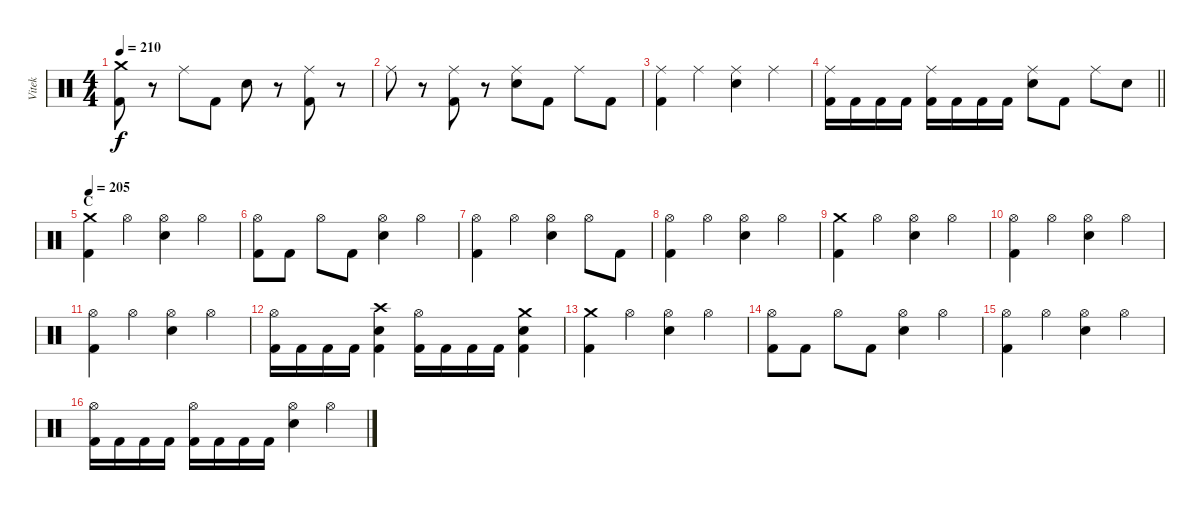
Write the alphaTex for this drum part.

\track ("Vitek" "Vitek") {instrument percussion}
\staff {score}
\articulation defaults
\ts (4 4)
\tempo 210
\clef neutral
\ks c
("Crash medium (hit)" "Kick (hit) 2").8{dy f} r.8 "Ride (middle)".8 "Kick (hit) 2".8 "Electric Snare (hit)".8 r.8 ("Ride (middle)" "Kick (hit) 2").8 r.8 |
"Ride (middle)".8 r.8 ("Ride (middle)" "Kick (hit) 2").8 r.8 ("Ride (middle)" "Electric Snare (hit)").8 "Kick (hit) 2".8 "Ride (middle)".8 "Kick (hit) 2".8 |
("Ride (middle)" "Kick (hit) 2").4 "Ride (middle)".4 ("Ride (middle)" "Electric Snare (hit)").4 "Ride (middle)".4 |
\barLineRight lightlight
("Ride (middle)" "Kick (hit) 2").16 "Kick (hit) 2".16 "Kick (hit) 2".16 "Kick (hit) 2".16 ("Ride (middle)" "Kick (hit) 2").16 "Kick (hit) 2".16 "Kick (hit) 2".16 "Kick (hit) 2".16 ("Ride (middle)" "Electric Snare (hit)").8 "Kick (hit) 2".8 "Ride (middle)".8 "Electric Snare (hit)".8 |
\section ("" "C")
\tempo 205
("Crash medium (hit)" "Kick (hit) 2").4 "Hi-Hat (open)".4 ("Hi-Hat (open)" "Electric Snare (hit)").4 "Hi-Hat (open)".4 |
("Hi-Hat (open)" "Kick (hit) 2").8 "Kick (hit) 2".8 "Hi-Hat (open)".8 "Kick (hit) 2".8 ("Hi-Hat (open)" "Electric Snare (hit)").4 "Hi-Hat (open)".4 |
("Hi-Hat (open)" "Kick (hit) 2").4 "Hi-Hat (open)".4 ("Hi-Hat (open)" "Electric Snare (hit)").4 "Hi-Hat (open)".8 "Kick (hit) 2".8 |
("Hi-Hat (open)" "Kick (hit) 2").4 "Hi-Hat (open)".4 ("Hi-Hat (open)" "Electric Snare (hit)").4 "Hi-Hat (open)".4 |
("Crash medium (hit)" "Kick (hit) 2").4 "Hi-Hat (open)".4 ("Hi-Hat (open)" "Electric Snare (hit)").4 "Hi-Hat (open)".4 |
("Hi-Hat (open)" "Kick (hit) 2").4 "Hi-Hat (open)".4 ("Hi-Hat (open)" "Electric Snare (hit)").4 "Hi-Hat (open)".4 |
("Hi-Hat (open)" "Kick (hit) 2").4 "Hi-Hat (open)".4 ("Hi-Hat (open)" "Electric Snare (hit)").4 "Hi-Hat (open)".4 |
("Hi-Hat (open)" "Kick (hit) 2").16 "Kick (hit) 2".16 "Kick (hit) 2".16 "Kick (hit) 2".16 ("Crash high (hit)" "Electric Snare (hit)" "Kick (hit) 2").4 ("Hi-Hat (open)" "Kick (hit) 2").16 "Kick (hit) 2".16 "Kick (hit) 2".16 "Kick (hit) 2".16 ("Crash medium (hit)" "Electric Snare (hit)" "Kick (hit) 2").4 |
("Crash medium (hit)" "Kick (hit) 2").4 "Hi-Hat (open)".4 ("Hi-Hat (open)" "Electric Snare (hit)").4 "Hi-Hat (open)".4 |
("Hi-Hat (open)" "Kick (hit) 2").8 "Kick (hit) 2".8 "Hi-Hat (open)".8 "Kick (hit) 2".8 ("Hi-Hat (open)" "Electric Snare (hit)").4 "Hi-Hat (open)".4 |
("Hi-Hat (open)" "Kick (hit) 2").4 "Hi-Hat (open)".4 ("Hi-Hat (open)" "Electric Snare (hit)").4 "Hi-Hat (open)".4 |
("Hi-Hat (open)" "Kick (hit) 2").16 "Kick (hit) 2".16 "Kick (hit) 2".16 "Kick (hit) 2".16 ("Hi-Hat (open)" "Kick (hit) 2").16 "Kick (hit) 2".16 "Kick (hit) 2".16 "Kick (hit) 2".16 ("Hi-Hat (open)" "Electric Snare (hit)").4 "Hi-Hat (open)".4
